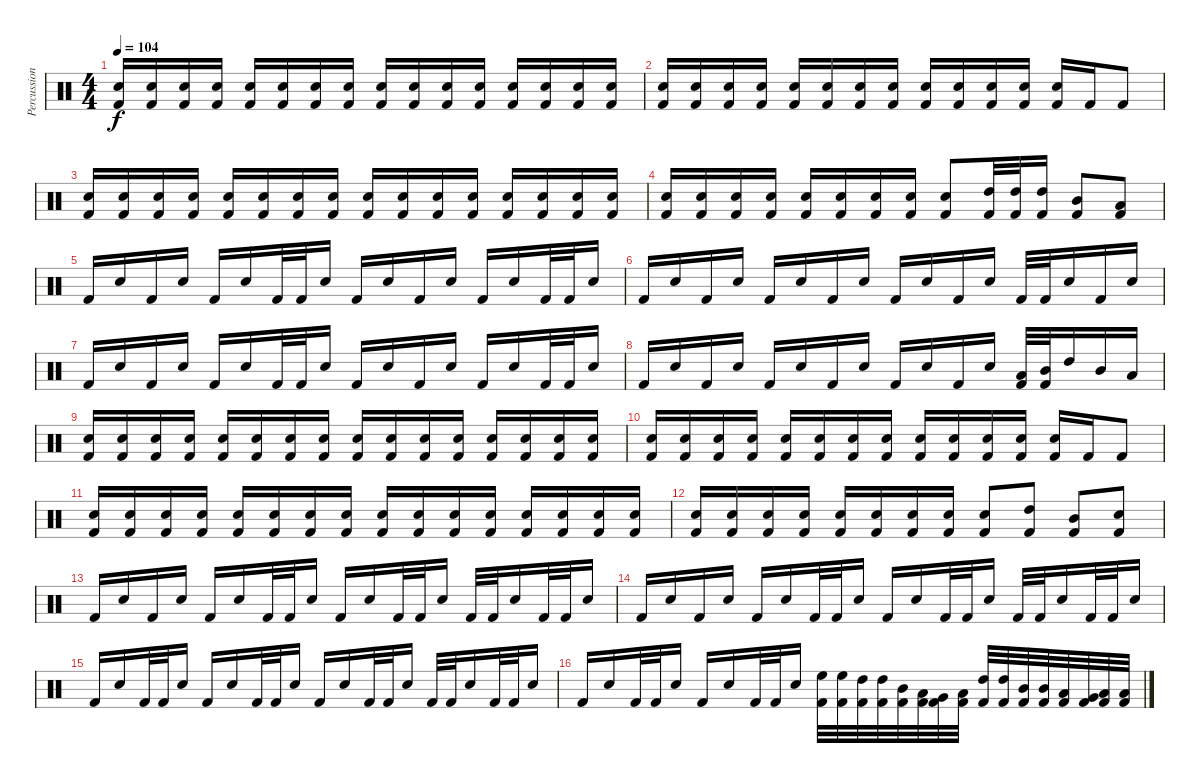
\track ("Percussion" "Percussion") {instrument percussion}
\staff {score}
\articulation defaults
\ts (4 4)
\tempo 104
\clef neutral
\ks c
("Snare (hit) 2" "Kick (hit) 2").16{dy f} ("Snare (hit) 2" "Kick (hit) 2").16 ("Snare (hit) 2" "Kick (hit) 2").16 ("Snare (hit) 2" "Kick (hit) 2").16 ("Snare (hit) 2" "Kick (hit) 2").16 ("Snare (hit) 2" "Kick (hit) 2").16 ("Snare (hit) 2" "Kick (hit) 2").16 ("Snare (hit) 2" "Kick (hit) 2").16 ("Snare (hit) 2" "Kick (hit) 2").16 ("Snare (hit) 2" "Kick (hit) 2").16 ("Snare (hit) 2" "Kick (hit) 2").16 ("Snare (hit) 2" "Kick (hit) 2").16 ("Snare (hit) 2" "Kick (hit) 2").16 ("Snare (hit) 2" "Kick (hit) 2").16 ("Snare (hit) 2" "Kick (hit) 2").16 ("Snare (hit) 2" "Kick (hit) 2").16 |
("Snare (hit) 2" "Kick (hit) 2").16 ("Snare (hit) 2" "Kick (hit) 2").16 ("Snare (hit) 2" "Kick (hit) 2").16 ("Snare (hit) 2" "Kick (hit) 2").16 ("Snare (hit) 2" "Kick (hit) 2").16 ("Snare (hit) 2" "Kick (hit) 2").16 ("Snare (hit) 2" "Kick (hit) 2").16 ("Snare (hit) 2" "Kick (hit) 2").16 ("Snare (hit) 2" "Kick (hit) 2").16 ("Snare (hit) 2" "Kick (hit) 2").16 ("Snare (hit) 2" "Kick (hit) 2").16 ("Snare (hit) 2" "Kick (hit) 2").16 ("Snare (hit) 2" "Kick (hit) 2").16 "Kick (hit) 2".16 "Kick (hit) 2".8 |
("Snare (hit) 2" "Kick (hit) 2").16 ("Snare (hit) 2" "Kick (hit) 2").16 ("Snare (hit) 2" "Kick (hit) 2").16 ("Snare (hit) 2" "Kick (hit) 2").16 ("Snare (hit) 2" "Kick (hit) 2").16 ("Snare (hit) 2" "Kick (hit) 2").16 ("Snare (hit) 2" "Kick (hit) 2").16 ("Snare (hit) 2" "Kick (hit) 2").16 ("Snare (hit) 2" "Kick (hit) 2").16 ("Snare (hit) 2" "Kick (hit) 2").16 ("Snare (hit) 2" "Kick (hit) 2").16 ("Snare (hit) 2" "Kick (hit) 2").16 ("Snare (hit) 2" "Kick (hit) 2").16 ("Snare (hit) 2" "Kick (hit) 2").16 ("Snare (hit) 2" "Kick (hit) 2").16 ("Snare (hit) 2" "Kick (hit) 2").16 |
("Snare (hit) 2" "Kick (hit) 2").16 ("Snare (hit) 2" "Kick (hit) 2").16 ("Snare (hit) 2" "Kick (hit) 2").16 ("Snare (hit) 2" "Kick (hit) 2").16 ("Snare (hit) 2" "Kick (hit) 2").16 ("Snare (hit) 2" "Kick (hit) 2").16 ("Snare (hit) 2" "Kick (hit) 2").16 ("Snare (hit) 2" "Kick (hit) 2").16 ("Snare (hit) 2" "Kick (hit) 2").8 ("High Tom (hit)" "Kick (hit) 2").32 ("High Tom (hit)" "Kick (hit) 2").32 ("High Tom (hit)" "Kick (hit) 2").16 ("Mid Tom (hit)" "Kick (hit) 2").8 ("Low Tom (hit)" "Kick (hit) 2").8 |
"Kick (hit) 2".16 "Snare (hit) 2".16 "Kick (hit) 2".16 "Snare (hit) 2".16 "Kick (hit) 2".16 "Snare (hit) 2".16 "Kick (hit) 2".32 "Kick (hit) 2".32 "Snare (hit) 2".16 "Kick (hit) 2".16 "Snare (hit) 2".16 "Kick (hit) 2".16 "Snare (hit) 2".16 "Kick (hit) 2".16 "Snare (hit) 2".16 "Kick (hit) 2".32 "Kick (hit) 2".32 "Snare (hit) 2".16 |
"Kick (hit) 2".16 "Snare (hit) 2".16 "Kick (hit) 2".16 "Snare (hit) 2".16 "Kick (hit) 2".16 "Snare (hit) 2".16 "Kick (hit) 2".16 "Snare (hit) 2".16 "Kick (hit) 2".16 "Snare (hit) 2".16 "Kick (hit) 2".16 "Snare (hit) 2".16 "Kick (hit) 2".32 "Kick (hit) 2".32 "Snare (hit) 2".16 "Kick (hit) 2".16 "Snare (hit) 2".16 |
"Kick (hit) 2".16 "Snare (hit) 2".16 "Kick (hit) 2".16 "Snare (hit) 2".16 "Kick (hit) 2".16 "Snare (hit) 2".16 "Kick (hit) 2".32 "Kick (hit) 2".32 "Snare (hit) 2".16 "Kick (hit) 2".16 "Snare (hit) 2".16 "Kick (hit) 2".16 "Snare (hit) 2".16 "Kick (hit) 2".16 "Snare (hit) 2".16 "Kick (hit) 2".32 "Kick (hit) 2".32 "Snare (hit) 2".16 |
"Kick (hit) 2".16 "Snare (hit) 2".16 "Kick (hit) 2".16 "Snare (hit) 2".16 "Kick (hit) 2".16 "Snare (hit) 2".16 "Kick (hit) 2".16 "Snare (hit) 2".16 "Kick (hit) 2".16 "Snare (hit) 2".16 "Kick (hit) 2".16 "Snare (hit) 2".16 ("Low Tom (hit)" "Kick (hit) 2").32 ("Mid Tom (hit)" "Kick (hit) 2").32 "High Tom (hit)".16 "Mid Tom (hit)".16 "Low Tom (hit)".16 |
("Snare (hit) 2" "Kick (hit) 2").16 ("Snare (hit) 2" "Kick (hit) 2").16 ("Snare (hit) 2" "Kick (hit) 2").16 ("Snare (hit) 2" "Kick (hit) 2").16 ("Snare (hit) 2" "Kick (hit) 2").16 ("Snare (hit) 2" "Kick (hit) 2").16 ("Snare (hit) 2" "Kick (hit) 2").16 ("Snare (hit) 2" "Kick (hit) 2").16 ("Snare (hit) 2" "Kick (hit) 2").16 ("Snare (hit) 2" "Kick (hit) 2").16 ("Snare (hit) 2" "Kick (hit) 2").16 ("Snare (hit) 2" "Kick (hit) 2").16 ("Snare (hit) 2" "Kick (hit) 2").16 ("Snare (hit) 2" "Kick (hit) 2").16 ("Snare (hit) 2" "Kick (hit) 2").16 ("Snare (hit) 2" "Kick (hit) 2").16 |
("Snare (hit) 2" "Kick (hit) 2").16 ("Snare (hit) 2" "Kick (hit) 2").16 ("Snare (hit) 2" "Kick (hit) 2").16 ("Snare (hit) 2" "Kick (hit) 2").16 ("Snare (hit) 2" "Kick (hit) 2").16 ("Snare (hit) 2" "Kick (hit) 2").16 ("Snare (hit) 2" "Kick (hit) 2").16 ("Snare (hit) 2" "Kick (hit) 2").16 ("Snare (hit) 2" "Kick (hit) 2").16 ("Snare (hit) 2" "Kick (hit) 2").16 ("Snare (hit) 2" "Kick (hit) 2").16 ("Snare (hit) 2" "Kick (hit) 2").16 ("Snare (hit) 2" "Kick (hit) 2").16 "Kick (hit) 2".16 "Kick (hit) 2".8 |
("Snare (hit) 2" "Kick (hit) 2").16 ("Snare (hit) 2" "Kick (hit) 2").16 ("Snare (hit) 2" "Kick (hit) 2").16 ("Snare (hit) 2" "Kick (hit) 2").16 ("Snare (hit) 2" "Kick (hit) 2").16 ("Snare (hit) 2" "Kick (hit) 2").16 ("Snare (hit) 2" "Kick (hit) 2").16 ("Snare (hit) 2" "Kick (hit) 2").16 ("Snare (hit) 2" "Kick (hit) 2").16 ("Snare (hit) 2" "Kick (hit) 2").16 ("Snare (hit) 2" "Kick (hit) 2").16 ("Snare (hit) 2" "Kick (hit) 2").16 ("Snare (hit) 2" "Kick (hit) 2").16 ("Snare (hit) 2" "Kick (hit) 2").16 ("Snare (hit) 2" "Kick (hit) 2").16 ("Snare (hit) 2" "Kick (hit) 2").16 |
("Snare (hit) 2" "Kick (hit) 2").16 ("Snare (hit) 2" "Kick (hit) 2").16 ("Snare (hit) 2" "Kick (hit) 2").16 ("Snare (hit) 2" "Kick (hit) 2").16 ("Snare (hit) 2" "Kick (hit) 2").16 ("Snare (hit) 2" "Kick (hit) 2").16 ("Snare (hit) 2" "Kick (hit) 2").16 ("Snare (hit) 2" "Kick (hit) 2").16 ("Snare (hit) 2" "Kick (hit) 2").8 ("High Tom (hit)" "Kick (hit) 2").8 ("Mid Tom (hit)" "Kick (hit) 2").8 ("Snare (hit) 2" "Kick (hit) 2").8 |
"Kick (hit) 2".16 "Snare (hit) 2".16 "Kick (hit) 2".16 "Snare (hit) 2".16 "Kick (hit) 2".16 "Snare (hit) 2".16 "Kick (hit) 2".32 "Kick (hit) 2".32 "Snare (hit) 2".16 "Kick (hit) 2".16 "Snare (hit) 2".16 "Kick (hit) 2".32 "Kick (hit) 2".32 "Snare (hit) 2".16 "Kick (hit) 2".32 "Kick (hit) 2".32 "Snare (hit) 2".16 "Kick (hit) 2".32 "Kick (hit) 2".32 "Snare (hit) 2".16 |
"Kick (hit) 2".16 "Snare (hit) 2".16 "Kick (hit) 2".16 "Snare (hit) 2".16 "Kick (hit) 2".16 "Snare (hit) 2".16 "Kick (hit) 2".32 "Kick (hit) 2".32 "Snare (hit) 2".16 "Kick (hit) 2".16 "Snare (hit) 2".16 "Kick (hit) 2".32 "Kick (hit) 2".32 "Snare (hit) 2".16 "Kick (hit) 2".32 "Kick (hit) 2".32 "Snare (hit) 2".16 "Kick (hit) 2".32 "Kick (hit) 2".32 "Snare (hit) 2".16 |
"Kick (hit) 2".16 "Snare (hit) 2".16 "Kick (hit) 2".32 "Kick (hit) 2".32 "Snare (hit) 2".16 "Kick (hit) 2".16 "Snare (hit) 2".16 "Kick (hit) 2".32 "Kick (hit) 2".32 "Snare (hit) 2".16 "Kick (hit) 2".16 "Snare (hit) 2".16 "Kick (hit) 2".32 "Kick (hit) 2".32 "Snare (hit) 2".16 "Kick (hit) 2".32 "Kick (hit) 2".32 "Snare (hit) 2".16 "Kick (hit) 2".32 "Kick (hit) 2".32 "Snare (hit) 2".16 |
"Kick (hit) 2".16 "Snare (hit) 2".16 "Kick (hit) 2".32 "Kick (hit) 2".32 "Snare (hit) 2".16 "Kick (hit) 2".16 "Snare (hit) 2".16 "Kick (hit) 2".32 "Kick (hit) 2".32 "Snare (hit) 2".16 ("High Floor Tom (hit)" "Kick (hit) 2").32 ("High Floor Tom (hit)" "Kick (hit) 2").32 ("High Tom (hit)" "Kick (hit) 2").32 ("High Tom (hit)" "Kick (hit) 2").32 ("Mid Tom (hit)" "Kick (hit) 2").32 ("Low Tom (hit)" "Kick (hit) 2").32 ("Very Low Tom (hit)" "Kick (hit) 2").32 ("Low Floor Tom (hit)" "Kick (hit) 2").32 ("High Tom (hit)" "Kick (hit) 2").32 ("High Tom (hit)" "Kick (hit) 2").32 ("Mid Tom (hit)" "Kick (hit) 2").32 ("Mid Tom (hit)" "Kick (hit) 2").32 ("Low Tom (hit)" "Kick (hit) 2").32 ("Very Low Tom (hit)" "Kick (hit) 2").32 ("Low Floor Tom (hit)" "Kick (hit) 2").32 ("Low Floor Tom (hit)" "Kick (hit) 2").32
